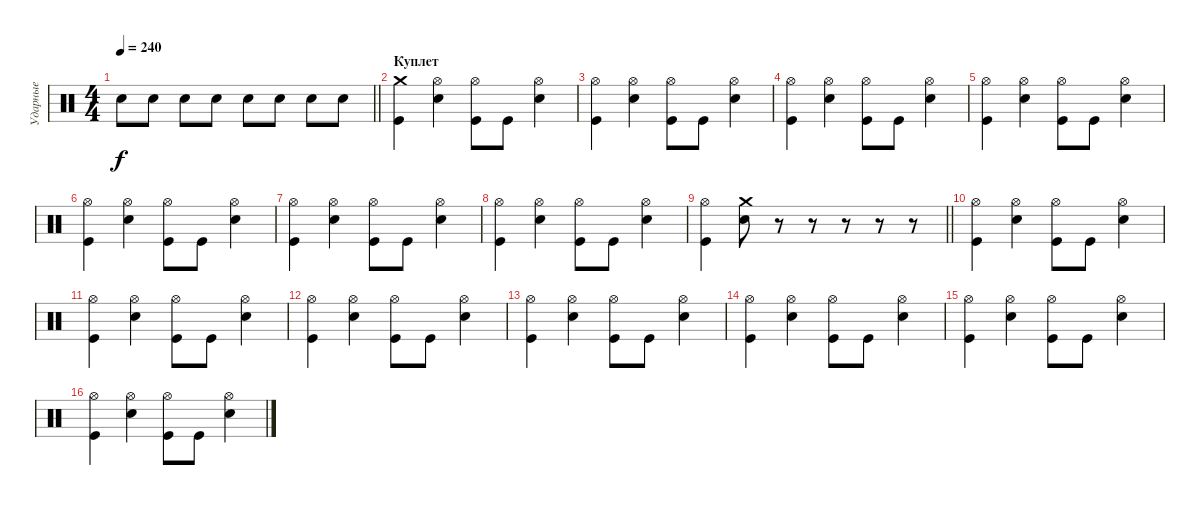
\track ("Ударные" "Ударные") {instrument percussion}
\staff {score}
\articulation defaults
\ts (4 4)
\tempo 240
\clef neutral
\barLineRight lightlight
\ks c "Electric Snare (hit)".8{dy f} "Electric Snare (hit)".8 "Electric Snare (hit)".8 "Electric Snare (hit)".8 "Electric Snare (hit)".8 "Electric Snare (hit)".8 "Electric Snare (hit)".8 "Electric Snare (hit)".8
|
\section ("" "Куплет")
("Crash medium (hit)" "Kick (hit)").4 ("Hi-Hat (open)" "Electric Snare (hit)").4 ("Hi-Hat (open)" "Kick (hit)").8 "Kick (hit)".8 ("Hi-Hat (open)" "Electric Snare (hit)").4 |
("Hi-Hat (open)" "Kick (hit)").4 ("Hi-Hat (open)" "Electric Snare (hit)").4 ("Hi-Hat (open)" "Kick (hit)").8 "Kick (hit)".8 ("Hi-Hat (open)" "Electric Snare (hit)").4 |
("Hi-Hat (open)" "Kick (hit)").4 ("Hi-Hat (open)" "Electric Snare (hit)").4 ("Hi-Hat (open)" "Kick (hit)").8 "Kick (hit)".8 ("Hi-Hat (open)" "Electric Snare (hit)").4 |
("Hi-Hat (open)" "Kick (hit)").4 ("Hi-Hat (open)" "Electric Snare (hit)").4 ("Hi-Hat (open)" "Kick (hit)").8 "Kick (hit)".8 ("Hi-Hat (open)" "Electric Snare (hit)").4 |
("Hi-Hat (open)" "Kick (hit)").4 ("Hi-Hat (open)" "Electric Snare (hit)").4 ("Hi-Hat (open)" "Kick (hit)").8 "Kick (hit)".8 ("Hi-Hat (open)" "Electric Snare (hit)").4 |
("Hi-Hat (open)" "Kick (hit)").4 ("Hi-Hat (open)" "Electric Snare (hit)").4 ("Hi-Hat (open)" "Kick (hit)").8 "Kick (hit)".8 ("Hi-Hat (open)" "Electric Snare (hit)").4 |
("Hi-Hat (open)" "Kick (hit)").4 ("Hi-Hat (open)" "Electric Snare (hit)").4 ("Hi-Hat (open)" "Kick (hit)").8 "Kick (hit)".8 ("Hi-Hat (open)" "Electric Snare (hit)").4 |
\barLineRight lightlight
("Hi-Hat (open)" "Kick (hit)").4 ("Crash medium (hit)" "Electric Snare (hit)").8 r.8 r.8 r.8 r.8 r.8 |
("Hi-Hat (open)" "Kick (hit)").4 ("Hi-Hat (open)" "Electric Snare (hit)").4 ("Hi-Hat (open)" "Kick (hit)").8 "Kick (hit)".8 ("Hi-Hat (open)" "Electric Snare (hit)").4 |
("Hi-Hat (open)" "Kick (hit)").4 ("Hi-Hat (open)" "Electric Snare (hit)").4 ("Hi-Hat (open)" "Kick (hit)").8 "Kick (hit)".8 ("Hi-Hat (open)" "Electric Snare (hit)").4 |
("Hi-Hat (open)" "Kick (hit)").4 ("Hi-Hat (open)" "Electric Snare (hit)").4 ("Hi-Hat (open)" "Kick (hit)").8 "Kick (hit)".8 ("Hi-Hat (open)" "Electric Snare (hit)").4 |
("Hi-Hat (open)" "Kick (hit)").4 ("Hi-Hat (open)" "Electric Snare (hit)").4 ("Hi-Hat (open)" "Kick (hit)").8 "Kick (hit)".8 ("Hi-Hat (open)" "Electric Snare (hit)").4 |
("Hi-Hat (open)" "Kick (hit)").4 ("Hi-Hat (open)" "Electric Snare (hit)").4 ("Hi-Hat (open)" "Kick (hit)").8 "Kick (hit)".8 ("Hi-Hat (open)" "Electric Snare (hit)").4 |
("Hi-Hat (open)" "Kick (hit)").4 ("Hi-Hat (open)" "Electric Snare (hit)").4 ("Hi-Hat (open)" "Kick (hit)").8 "Kick (hit)".8 ("Hi-Hat (open)" "Electric Snare (hit)").4 |
("Hi-Hat (open)" "Kick (hit)").4 ("Hi-Hat (open)" "Electric Snare (hit)").4 ("Hi-Hat (open)" "Kick (hit)").8 "Kick (hit)".8 ("Hi-Hat (open)" "Electric Snare (hit)").4
